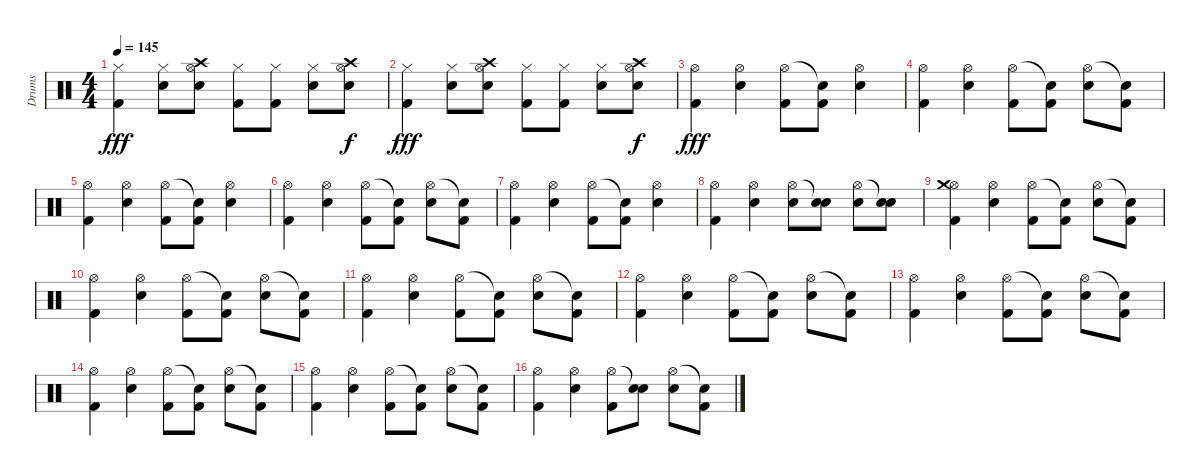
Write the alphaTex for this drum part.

\track ("Drums" "Drums") {instrument percussion}
\staff {score}
\articulation defaults
\ts (4 4)
\tempo 145
\clef neutral
\ks c
("Hi-Hat (closed)" "Kick (hit) 2").4{dy fff} ("Hi-Hat (closed)" "Electric Snare (hit)").8 ("Hi-Hat (open)" "Electric Snare (hit)" "Crash high (hit)").8 ("Hi-Hat (closed)" "Kick (hit) 2").8 ("Hi-Hat (closed)" "Kick (hit) 2").8 ("Hi-Hat (closed)" "Electric Snare (hit)").8 ("Hi-Hat (open)" "Electric Snare (hit)" "Crash high (hit)").8{dy f} |
("Hi-Hat (closed)" "Kick (hit) 2").4{dy fff} ("Hi-Hat (closed)" "Electric Snare (hit)").8 ("Hi-Hat (open)" "Electric Snare (hit)" "Crash high (hit)").8 ("Hi-Hat (closed)" "Kick (hit) 2").8 ("Hi-Hat (closed)" "Kick (hit) 2").8 ("Hi-Hat (closed)" "Electric Snare (hit)").8 ("Hi-Hat (open)" "Electric Snare (hit)" "Crash high (hit)").8{dy f} |
("Hi-Hat (open)" "Kick (hit) 2").4{dy fff} ("Hi-Hat (open)" "Electric Snare (hit)").4 ("Hi-Hat (open)" "Kick (hit) 2").8 ("Snare (hit)"{t} "Kick (hit) 2").8 ("Hi-Hat (open)" "Electric Snare (hit)").4 |
("Hi-Hat (open)" "Kick (hit) 2").4 ("Hi-Hat (open)" "Electric Snare (hit)").4 ("Hi-Hat (open)" "Kick (hit) 2").8 ("Snare (hit)"{t} "Kick (hit) 2").8 ("Hi-Hat (open)" "Electric Snare (hit)").8 ("Snare (hit)"{t} "Kick (hit) 2").8 |
("Hi-Hat (open)" "Kick (hit) 2").4 ("Hi-Hat (open)" "Electric Snare (hit)").4 ("Hi-Hat (open)" "Kick (hit) 2").8 ("Snare (hit)"{t} "Kick (hit) 2").8 ("Hi-Hat (open)" "Electric Snare (hit)").4 |
("Hi-Hat (open)" "Kick (hit) 2").4 ("Hi-Hat (open)" "Electric Snare (hit)").4 ("Hi-Hat (open)" "Kick (hit) 2").8 ("Snare (hit)"{t} "Kick (hit) 2").8 ("Hi-Hat (open)" "Electric Snare (hit)").8 ("Snare (hit)"{t} "Kick (hit) 2").8 |
("Hi-Hat (open)" "Kick (hit) 2").4 ("Hi-Hat (open)" "Electric Snare (hit)").4 ("Hi-Hat (open)" "Kick (hit) 2").8 ("Snare (hit)"{t} "Kick (hit) 2").8 ("Hi-Hat (open)" "Electric Snare (hit)").4 |
("Hi-Hat (open)" "Kick (hit) 2").4 ("Hi-Hat (open)" "Electric Snare (hit)").4 ("Hi-Hat (open)" "Electric Snare (hit)").8 ("Snare (hit)"{t} "Electric Snare (hit)").8 ("Hi-Hat (open)" "Electric Snare (hit)").8 ("Snare (hit)"{t} "Electric Snare (hit)").8 |
("Hi-Hat (open)" "Kick (hit) 2" "Crash medium (hit)").4 ("Hi-Hat (open)" "Electric Snare (hit)").4 ("Hi-Hat (open)" "Kick (hit) 2").8 ("Snare (hit)"{t} "Kick (hit) 2").8 ("Hi-Hat (open)" "Electric Snare (hit)").8 ("Snare (hit)"{t} "Kick (hit) 2").8 |
("Hi-Hat (open)" "Kick (hit) 2").4 ("Hi-Hat (open)" "Electric Snare (hit)").4 ("Hi-Hat (open)" "Kick (hit) 2").8 ("Snare (hit)"{t} "Kick (hit) 2").8 ("Hi-Hat (open)" "Electric Snare (hit)").8 ("Snare (hit)"{t} "Kick (hit) 2").8 |
("Hi-Hat (open)" "Kick (hit) 2").4 ("Hi-Hat (open)" "Electric Snare (hit)").4 ("Hi-Hat (open)" "Kick (hit) 2").8 ("Snare (hit)"{t} "Kick (hit) 2").8 ("Hi-Hat (open)" "Electric Snare (hit)").8 ("Snare (hit)"{t} "Kick (hit) 2").8 |
("Hi-Hat (open)" "Kick (hit) 2").4 ("Hi-Hat (open)" "Electric Snare (hit)").4 ("Hi-Hat (open)" "Kick (hit) 2").8 ("Snare (hit)"{t} "Kick (hit) 2").8 ("Hi-Hat (open)" "Electric Snare (hit)").8 ("Snare (hit)"{t} "Kick (hit) 2").8 |
("Hi-Hat (open)" "Kick (hit) 2").4 ("Hi-Hat (open)" "Electric Snare (hit)").4 ("Hi-Hat (open)" "Kick (hit) 2").8 ("Snare (hit)"{t} "Kick (hit) 2").8 ("Hi-Hat (open)" "Electric Snare (hit)").8 ("Snare (hit)"{t} "Kick (hit) 2").8 |
("Hi-Hat (open)" "Kick (hit) 2").4 ("Hi-Hat (open)" "Electric Snare (hit)").4 ("Hi-Hat (open)" "Kick (hit) 2").8 ("Snare (hit)"{t} "Kick (hit) 2").8 ("Hi-Hat (open)" "Electric Snare (hit)").8 ("Snare (hit)"{t} "Kick (hit) 2").8 |
("Hi-Hat (open)" "Kick (hit) 2").4 ("Hi-Hat (open)" "Electric Snare (hit)").4 ("Hi-Hat (open)" "Kick (hit) 2").8 ("Snare (hit)"{t} "Kick (hit) 2").8 ("Hi-Hat (open)" "Electric Snare (hit)").8 ("Snare (hit)"{t} "Kick (hit) 2").8 |
("Hi-Hat (open)" "Kick (hit) 2").4 ("Hi-Hat (open)" "Electric Snare (hit)").4 ("Hi-Hat (open)" "Kick (hit) 2").8 ("Snare (hit)"{t} "Electric Snare (hit)").8 ("Hi-Hat (open)" "Electric Snare (hit)").8 ("Snare (hit)"{t} "Kick (hit) 2").8
